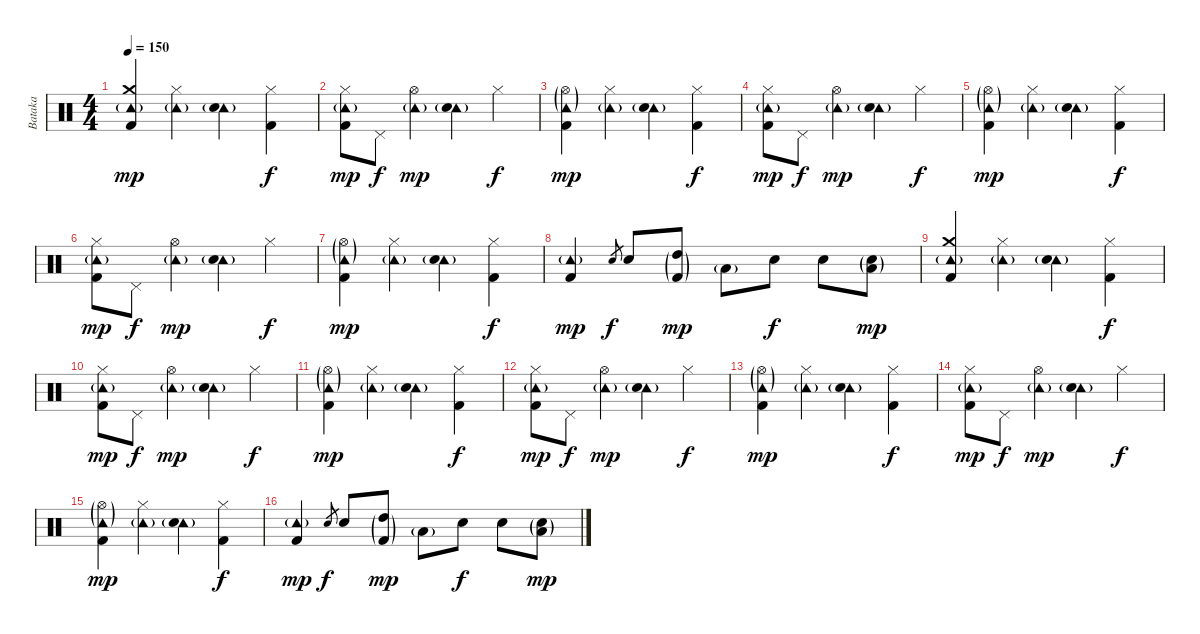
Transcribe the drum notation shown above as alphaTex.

\track ("Bataka" "Bataka") {instrument percussion}
\staff {score}
\articulation defaults
\ts (4 4)
\tempo 150
\clef neutral
\ks c
("Tambourine (hit)"{g} "Crash medium (hit)" "Kick (hit) 2").4{dy mp} ("Tambourine (hit)"{g} "Hi-Hat (closed)").4 ("Tambourine (hit)"{g} "Electric Snare (hit)").4 ("Hi-Hat (closed)" "Kick (hit) 2").4{dy f} |
("Tambourine (hit)"{g} "Hi-Hat (closed)" "Kick (hit) 2").8{dy mp} "Pedal Hi-Hat (hit)".8{dy f} ("Tambourine (hit)"{g} "Hi-Hat (open)").4{dy mp} ("Tambourine (hit)"{g} "Electric Snare (hit)").4 "Hi-Hat (closed)".4{dy f} |
("Tambourine (hit)"{g} "Hi-Hat (open)"{g} "Kick (hit) 2").4{dy mp} ("Tambourine (hit)"{g} "Hi-Hat (closed)").4 ("Tambourine (hit)"{g} "Electric Snare (hit)").4 ("Hi-Hat (closed)" "Kick (hit) 2").4{dy f} |
("Tambourine (hit)"{g} "Hi-Hat (closed)" "Kick (hit) 2").8{dy mp} "Pedal Hi-Hat (hit)".8{dy f} ("Tambourine (hit)"{g} "Hi-Hat (open)").4{dy mp} ("Tambourine (hit)"{g} "Electric Snare (hit)").4 "Hi-Hat (closed)".4{dy f} |
("Tambourine (hit)"{g} "Hi-Hat (open)"{g} "Kick (hit) 2").4{dy mp} ("Tambourine (hit)"{g} "Hi-Hat (closed)").4 ("Tambourine (hit)"{g} "Electric Snare (hit)").4 ("Hi-Hat (closed)" "Kick (hit) 2").4{dy f} |
("Tambourine (hit)"{g} "Hi-Hat (closed)" "Kick (hit) 2").8{dy mp} "Pedal Hi-Hat (hit)".8{dy f} ("Tambourine (hit)"{g} "Hi-Hat (open)").4{dy mp} ("Tambourine (hit)"{g} "Electric Snare (hit)").4 "Hi-Hat (closed)".4{dy f} |
("Tambourine (hit)"{g} "Hi-Hat (open)"{g} "Kick (hit) 2").4{dy mp} ("Tambourine (hit)"{g} "Hi-Hat (closed)").4 ("Tambourine (hit)"{g} "Electric Snare (hit)").4 ("Hi-Hat (closed)" "Kick (hit) 2").4{dy f} |
("Tambourine (hit)"{g} "Kick (hit) 2").4{dy mp} "Electric Snare (hit)".8{gr dy f} "Electric Snare (hit)".8 ("High Tom (hit)"{g} "Kick (hit) 2"{g}).8{dy mp} "Low Tom (hit)"{g}.8 "Electric Snare (hit)".8{dy f} "Electric Snare (hit)".8 ("Electric Snare (hit)"{g} "Low Floor Tom (hit)"{g}).8{dy mp} |
("Tambourine (hit)"{g} "Crash medium (hit)" "Kick (hit) 2").4 ("Tambourine (hit)"{g} "Hi-Hat (closed)").4 ("Tambourine (hit)"{g} "Electric Snare (hit)").4 ("Hi-Hat (closed)" "Kick (hit) 2").4{dy f} |
("Tambourine (hit)"{g} "Hi-Hat (closed)" "Kick (hit) 2").8{dy mp} "Pedal Hi-Hat (hit)".8{dy f} ("Tambourine (hit)"{g} "Hi-Hat (open)").4{dy mp} ("Tambourine (hit)"{g} "Electric Snare (hit)").4 "Hi-Hat (closed)".4{dy f} |
("Tambourine (hit)"{g} "Hi-Hat (open)"{g} "Kick (hit) 2").4{dy mp} ("Tambourine (hit)"{g} "Hi-Hat (closed)").4 ("Tambourine (hit)"{g} "Electric Snare (hit)").4 ("Hi-Hat (closed)" "Kick (hit) 2").4{dy f} |
("Tambourine (hit)"{g} "Hi-Hat (closed)" "Kick (hit) 2").8{dy mp} "Pedal Hi-Hat (hit)".8{dy f} ("Tambourine (hit)"{g} "Hi-Hat (open)").4{dy mp} ("Tambourine (hit)"{g} "Electric Snare (hit)").4 "Hi-Hat (closed)".4{dy f} |
("Tambourine (hit)"{g} "Hi-Hat (open)"{g} "Kick (hit) 2").4{dy mp} ("Tambourine (hit)"{g} "Hi-Hat (closed)").4 ("Tambourine (hit)"{g} "Electric Snare (hit)").4 ("Hi-Hat (closed)" "Kick (hit) 2").4{dy f} |
("Tambourine (hit)"{g} "Hi-Hat (closed)" "Kick (hit) 2").8{dy mp} "Pedal Hi-Hat (hit)".8{dy f} ("Tambourine (hit)"{g} "Hi-Hat (open)").4{dy mp} ("Tambourine (hit)"{g} "Electric Snare (hit)").4 "Hi-Hat (closed)".4{dy f} |
("Tambourine (hit)"{g} "Hi-Hat (open)"{g} "Kick (hit) 2").4{dy mp} ("Tambourine (hit)"{g} "Hi-Hat (closed)").4 ("Tambourine (hit)"{g} "Electric Snare (hit)").4 ("Hi-Hat (closed)" "Kick (hit) 2").4{dy f} |
("Tambourine (hit)"{g} "Kick (hit) 2").4{dy mp} "Electric Snare (hit)".8{gr dy f} "Electric Snare (hit)".8 ("High Tom (hit)"{g} "Kick (hit) 2"{g}).8{dy mp} "Low Tom (hit)"{g}.8 "Electric Snare (hit)".8{dy f} "Electric Snare (hit)".8 ("Electric Snare (hit)"{g} "Low Floor Tom (hit)"{g}).8{dy mp}
